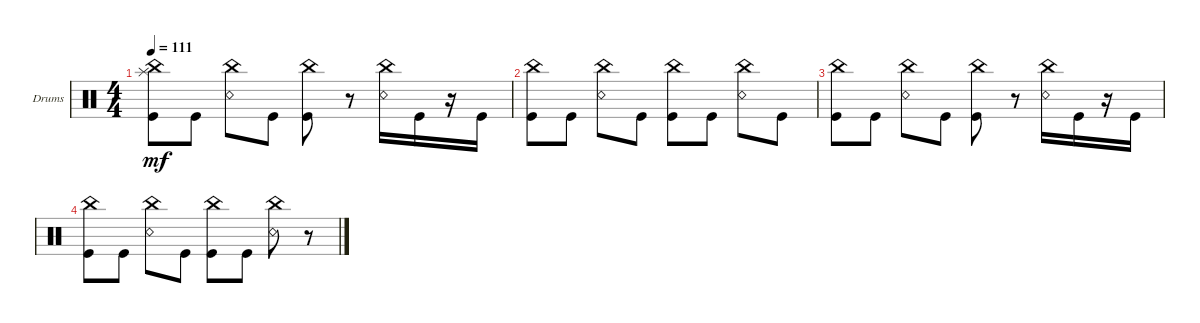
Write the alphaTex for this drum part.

\defaultSystemsLayout 4
\bracketExtendMode groupsimilarinstruments
\firstSystemTrackNameOrientation horizontal
\otherSystemsTrackNameOrientation horizontal
\track ("Drumkit" "Drums") {instrument percussion}
\staff {score}
\articulation defaults
\ts (4 4)
\tempo 111
\clef neutral
\ks c
("China (hit)" "Kick (hit)" "Splash (hit)").8{dy mf} "Kick (hit)".8 ("Snare (rim shot)" "China (hit)").8 "Kick (hit)".8 ("Kick (hit)" "China (hit)").8 r.8 ("Snare (rim shot)" "China (hit)").16 "Kick (hit)".16 r.16 "Kick (hit)".16 |
("China (hit)" "Kick (hit)").8 "Kick (hit)".8 ("Snare (rim shot)" "China (hit)").8 "Kick (hit)".8 ("Kick (hit)" "China (hit)").8 "Kick (hit)".8 ("Snare (rim shot)" "China (hit)").8 "Kick (hit)".8 |
("China (hit)" "Kick (hit)").8 "Kick (hit)".8 ("Snare (rim shot)" "China (hit)").8 "Kick (hit)".8 ("Kick (hit)" "China (hit)").8 r.8 ("Snare (rim shot)" "China (hit)").16 "Kick (hit)".16 r.16 "Kick (hit)".16 |
("China (hit)" "Kick (hit)").8 "Kick (hit)".8 ("Snare (rim shot)" "China (hit)").8 "Kick (hit)".8 ("Kick (hit)" "China (hit)").8 "Kick (hit)".8 ("Snare (rim shot)" "China (hit)").8 r.8
